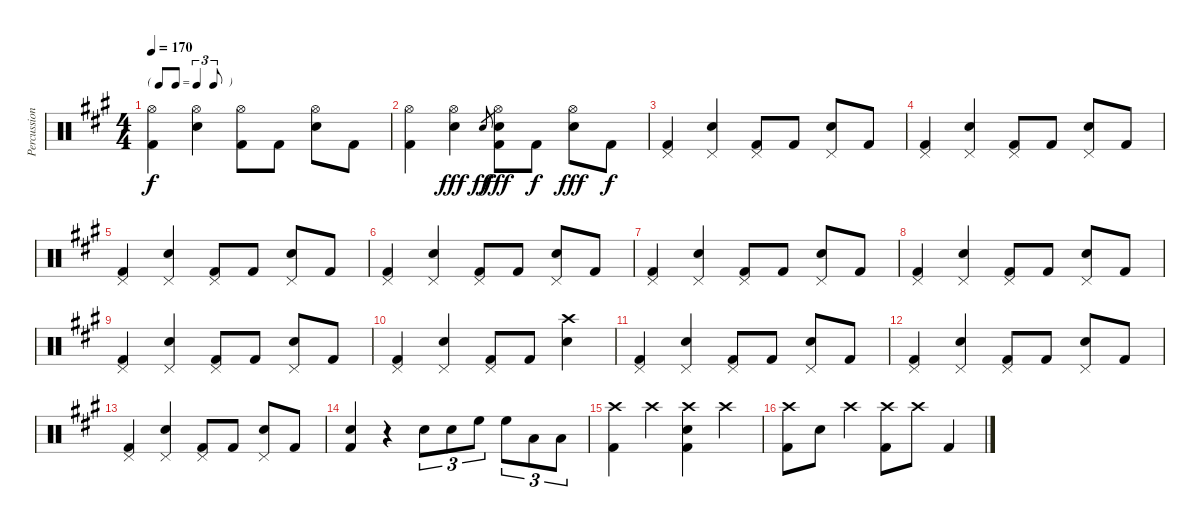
\track ("Percussion" "Percussion") {instrument percussion}
\staff {score}
\articulation defaults
\ts (4 4)
\tf triplet8th
\tempo 170
\clef neutral
\ks a
("Hi-Hat (open)" "Kick (hit) 2").4{dy f} ("Hi-Hat (open)" "Electric Snare (hit)").4 ("Hi-Hat (open)" "Kick (hit) 2").8 "Kick (hit) 2".8 ("Hi-Hat (open)" "Electric Snare (hit)").8 "Kick (hit) 2".8 |
("Hi-Hat (open)" "Kick (hit) 2").4 ("Hi-Hat (open)" "Electric Snare (hit)").4{dy fff} "Electric Snare (hit)".8{gr dy ff} ("Hi-Hat (open)" "Electric Snare (hit)" "Kick (hit) 2").8{dy fff} "Kick (hit) 2".8{dy f} ("Hi-Hat (open)" "Electric Snare (hit)").8{dy fff} "Kick (hit) 2".8{dy f} |
("Pedal Hi-Hat (hit)" "Kick (hit) 2").4 ("Pedal Hi-Hat (hit)" "Electric Snare (hit)").4 ("Pedal Hi-Hat (hit)" "Kick (hit) 2").8 "Kick (hit) 2".8 ("Pedal Hi-Hat (hit)" "Electric Snare (hit)").8 "Kick (hit) 2".8 |
("Pedal Hi-Hat (hit)" "Kick (hit) 2").4 ("Pedal Hi-Hat (hit)" "Electric Snare (hit)").4 ("Pedal Hi-Hat (hit)" "Kick (hit) 2").8 "Kick (hit) 2".8 ("Pedal Hi-Hat (hit)" "Electric Snare (hit)").8 "Kick (hit) 2".8 |
("Pedal Hi-Hat (hit)" "Kick (hit) 2").4 ("Pedal Hi-Hat (hit)" "Electric Snare (hit)").4 ("Pedal Hi-Hat (hit)" "Kick (hit) 2").8 "Kick (hit) 2".8 ("Pedal Hi-Hat (hit)" "Electric Snare (hit)").8 "Kick (hit) 2".8 |
("Pedal Hi-Hat (hit)" "Kick (hit) 2").4 ("Pedal Hi-Hat (hit)" "Electric Snare (hit)").4 ("Pedal Hi-Hat (hit)" "Kick (hit) 2").8 "Kick (hit) 2".8 ("Pedal Hi-Hat (hit)" "Electric Snare (hit)").8 "Kick (hit) 2".8 |
("Pedal Hi-Hat (hit)" "Kick (hit) 2").4 ("Pedal Hi-Hat (hit)" "Electric Snare (hit)").4 ("Pedal Hi-Hat (hit)" "Kick (hit) 2").8 "Kick (hit) 2".8 ("Pedal Hi-Hat (hit)" "Electric Snare (hit)").8 "Kick (hit) 2".8 |
("Pedal Hi-Hat (hit)" "Kick (hit) 2").4 ("Pedal Hi-Hat (hit)" "Electric Snare (hit)").4 ("Pedal Hi-Hat (hit)" "Kick (hit) 2").8 "Kick (hit) 2".8 ("Pedal Hi-Hat (hit)" "Electric Snare (hit)").8 "Kick (hit) 2".8 |
("Pedal Hi-Hat (hit)" "Kick (hit) 2").4 ("Pedal Hi-Hat (hit)" "Electric Snare (hit)").4 ("Pedal Hi-Hat (hit)" "Kick (hit) 2").8 "Kick (hit) 2".8 ("Pedal Hi-Hat (hit)" "Electric Snare (hit)").8 "Kick (hit) 2".8 |
("Pedal Hi-Hat (hit)" "Kick (hit) 2").4 ("Pedal Hi-Hat (hit)" "Electric Snare (hit)").4 ("Pedal Hi-Hat (hit)" "Kick (hit) 2").8 "Kick (hit) 2".8 ("Crash high (hit)" "Electric Snare (hit)").4 |
("Pedal Hi-Hat (hit)" "Kick (hit) 2").4 ("Pedal Hi-Hat (hit)" "Electric Snare (hit)").4 ("Pedal Hi-Hat (hit)" "Kick (hit) 2").8 "Kick (hit) 2".8 ("Pedal Hi-Hat (hit)" "Electric Snare (hit)").8 "Kick (hit) 2".8 |
("Pedal Hi-Hat (hit)" "Kick (hit) 2").4 ("Pedal Hi-Hat (hit)" "Electric Snare (hit)").4 ("Pedal Hi-Hat (hit)" "Kick (hit) 2").8 "Kick (hit) 2".8 ("Pedal Hi-Hat (hit)" "Electric Snare (hit)").8 "Kick (hit) 2".8 |
("Pedal Hi-Hat (hit)" "Kick (hit) 2").4 ("Pedal Hi-Hat (hit)" "Electric Snare (hit)").4 ("Pedal Hi-Hat (hit)" "Kick (hit) 2").8 "Kick (hit) 2".8 ("Pedal Hi-Hat (hit)" "Electric Snare (hit)").8 "Kick (hit) 2".8 |
("Electric Snare (hit)" "Kick (hit) 2").4 r.4 "Electric Snare (hit)".8{tu (3 2)} "Electric Snare (hit)".8{tu (3 2)} "High Floor Tom (hit)".8{tu (3 2)} "High Floor Tom (hit)".8{tu (3 2)} "Low Tom (hit)".8{tu (3 2)} "Low Tom (hit)".8{tu (3 2)} |
("Crash high (hit)" "Kick (hit) 2").4 "Crash high (hit)".4 ("Crash high (hit)" "Electric Snare (hit)" "Kick (hit) 2").4 "Crash high (hit)".4 |
("Crash high (hit)" "Kick (hit) 2").8 "Electric Snare (hit)".8 "Crash high (hit)".4 ("Crash high (hit)" "Kick (hit) 2").8 "Crash high (hit)".8 "Kick (hit) 2".4
